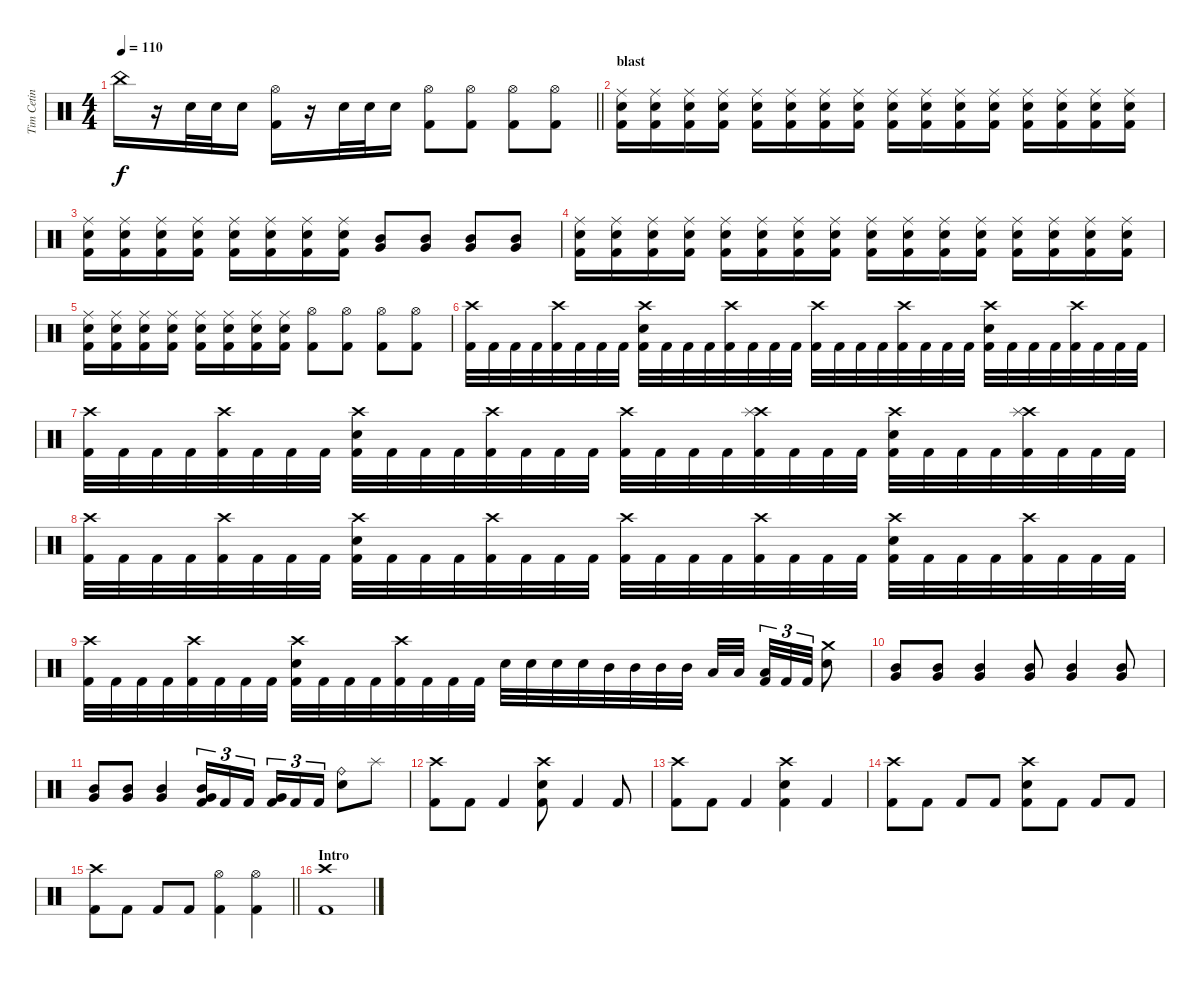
\track ("Tim Cetin" "Tim Cetin") {instrument percussion}
\staff {score}
\articulation defaults
\ts (4 4)
\tempo 110
\clef neutral
\barLineRight lightlight
\ks c "China (hit)".16{dy f}
r.16 "Snare (hit) 2".32 "Snare (hit) 2".32 "Snare (hit) 2".16 ("Hi-Hat (open)" "Kick (hit) 2").16 r.16 "Snare (hit) 2".32 "Snare (hit) 2".32 "Snare (hit) 2".16 ("Hi-Hat (open)" "Kick (hit) 2").8 ("Hi-Hat (open)" "Kick (hit) 2").8 ("Hi-Hat (open)" "Kick (hit) 2").8 ("Hi-Hat (open)" "Kick (hit) 2").8 |
\section ("" "blast")
("Ride (middle)" "Snare (hit) 2" "Kick (hit) 2").16 ("Ride (middle)" "Snare (hit) 2" "Kick (hit) 2").16 ("Ride (middle)" "Snare (hit) 2" "Kick (hit) 2").16 ("Ride (middle)" "Snare (hit) 2" "Kick (hit) 2").16 ("Ride (middle)" "Snare (hit) 2" "Kick (hit) 2").16 ("Ride (middle)" "Snare (hit) 2" "Kick (hit) 2").16 ("Ride (middle)" "Snare (hit) 2" "Kick (hit) 2").16 ("Ride (middle)" "Snare (hit) 2" "Kick (hit) 2").16 ("Ride (middle)" "Snare (hit) 2" "Kick (hit) 2").16 ("Ride (middle)" "Snare (hit) 2" "Kick (hit) 2").16 ("Ride (middle)" "Snare (hit) 2" "Kick (hit) 2").16 ("Ride (middle)" "Snare (hit) 2" "Kick (hit) 2").16 ("Ride (middle)" "Snare (hit) 2" "Kick (hit) 2").16 ("Ride (middle)" "Snare (hit) 2" "Kick (hit) 2").16 ("Ride (middle)" "Snare (hit) 2" "Kick (hit) 2").16 ("Ride (middle)" "Snare (hit) 2" "Kick (hit) 2").16 |
("Ride (middle)" "Snare (hit) 2" "Kick (hit) 2").16 ("Ride (middle)" "Snare (hit) 2" "Kick (hit) 2").16 ("Ride (middle)" "Snare (hit) 2" "Kick (hit) 2").16 ("Ride (middle)" "Snare (hit) 2" "Kick (hit) 2").16 ("Ride (middle)" "Snare (hit) 2" "Kick (hit) 2").16 ("Ride (middle)" "Snare (hit) 2" "Kick (hit) 2").16 ("Ride (middle)" "Snare (hit) 2" "Kick (hit) 2").16 ("Ride (middle)" "Snare (hit) 2" "Kick (hit) 2").16 ("Mid Tom (hit)" "Very Low Tom (hit)").8 ("Mid Tom (hit)" "Very Low Tom (hit)").8 ("Mid Tom (hit)" "Very Low Tom (hit)").8 ("Mid Tom (hit)" "Very Low Tom (hit)").8 |
("Ride (middle)" "Snare (hit) 2" "Kick (hit) 2").16 ("Ride (middle)" "Snare (hit) 2" "Kick (hit) 2").16 ("Ride (middle)" "Snare (hit) 2" "Kick (hit) 2").16 ("Ride (middle)" "Snare (hit) 2" "Kick (hit) 2").16 ("Ride (middle)" "Snare (hit) 2" "Kick (hit) 2").16 ("Ride (middle)" "Snare (hit) 2" "Kick (hit) 2").16 ("Ride (middle)" "Snare (hit) 2" "Kick (hit) 2").16 ("Ride (middle)" "Snare (hit) 2" "Kick (hit) 2").16 ("Ride (middle)" "Snare (hit) 2" "Kick (hit) 2").16 ("Ride (middle)" "Snare (hit) 2" "Kick (hit) 2").16 ("Ride (middle)" "Snare (hit) 2" "Kick (hit) 2").16 ("Ride (middle)" "Snare (hit) 2" "Kick (hit) 2").16 ("Ride (middle)" "Snare (hit) 2" "Kick (hit) 2").16 ("Ride (middle)" "Snare (hit) 2" "Kick (hit) 2").16 ("Ride (middle)" "Snare (hit) 2" "Kick (hit) 2").16 ("Ride (middle)" "Snare (hit) 2" "Kick (hit) 2").16 |
("Ride (middle)" "Snare (hit) 2" "Kick (hit) 2").16 ("Ride (middle)" "Snare (hit) 2" "Kick (hit) 2").16 ("Ride (middle)" "Snare (hit) 2" "Kick (hit) 2").16 ("Ride (middle)" "Snare (hit) 2" "Kick (hit) 2").16 ("Ride (middle)" "Snare (hit) 2" "Kick (hit) 2").16 ("Ride (middle)" "Snare (hit) 2" "Kick (hit) 2").16 ("Ride (middle)" "Snare (hit) 2" "Kick (hit) 2").16 ("Ride (middle)" "Snare (hit) 2" "Kick (hit) 2").16 ("Hi-Hat (open)" "Kick (hit) 2").8 ("Hi-Hat (open)" "Kick (hit) 2").8 ("Hi-Hat (open)" "Kick (hit) 2").8 ("Hi-Hat (open)" "Kick (hit) 2").8 |
("Crash high (hit)" "Kick (hit) 2").32 "Kick (hit) 2".32 "Kick (hit) 2".32 "Kick (hit) 2".32 ("Crash high (hit)" "Kick (hit) 2").32 "Kick (hit) 2".32 "Kick (hit) 2".32 "Kick (hit) 2".32 ("Crash high (hit)" "Snare (hit) 2" "Kick (hit) 2").32 "Kick (hit) 2".32 "Kick (hit) 2".32 "Kick (hit) 2".32 ("Crash high (hit)" "Kick (hit) 2").32 "Kick (hit) 2".32 "Kick (hit) 2".32 "Kick (hit) 2".32 ("Crash high (hit)" "Kick (hit) 2").32 "Kick (hit) 2".32 "Kick (hit) 2".32 "Kick (hit) 2".32 ("Crash high (hit)" "Kick (hit) 2").32 "Kick (hit) 2".32 "Kick (hit) 2".32 "Kick (hit) 2".32 ("Crash high (hit)" "Snare (hit) 2" "Kick (hit) 2").32 "Kick (hit) 2".32 "Kick (hit) 2".32 "Kick (hit) 2".32 ("Crash high (hit)" "Kick (hit) 2").32 "Kick (hit) 2".32 "Kick (hit) 2".32 "Kick (hit) 2".32 |
("Crash high (hit)" "Kick (hit) 2").32 "Kick (hit) 2".32 "Kick (hit) 2".32 "Kick (hit) 2".32 ("Crash high (hit)" "Kick (hit) 2").32 "Kick (hit) 2".32 "Kick (hit) 2".32 "Kick (hit) 2".32 ("Crash high (hit)" "Snare (hit) 2" "Kick (hit) 2").32 "Kick (hit) 2".32 "Kick (hit) 2".32 "Kick (hit) 2".32 ("Crash high (hit)" "Kick (hit) 2").32 "Kick (hit) 2".32 "Kick (hit) 2".32 "Kick (hit) 2".32 ("Crash high (hit)" "Kick (hit) 2").32 "Kick (hit) 2".32 "Kick (hit) 2".32 "Kick (hit) 2".32 ("Crash high (hit)" "Splash (hit)" "Kick (hit) 2").32 "Kick (hit) 2".32 "Kick (hit) 2".32 "Kick (hit) 2".32 ("Crash high (hit)" "Snare (hit) 2" "Kick (hit) 2").32 "Kick (hit) 2".32 "Kick (hit) 2".32 "Kick (hit) 2".32 ("Crash high (hit)" "Splash (hit)" "Kick (hit) 2").32 "Kick (hit) 2".32 "Kick (hit) 2".32 "Kick (hit) 2".32 |
("Crash high (hit)" "Kick (hit) 2").32 "Kick (hit) 2".32 "Kick (hit) 2".32 "Kick (hit) 2".32 ("Crash high (hit)" "Kick (hit) 2").32 "Kick (hit) 2".32 "Kick (hit) 2".32 "Kick (hit) 2".32 ("Crash high (hit)" "Snare (hit) 2" "Kick (hit) 2").32 "Kick (hit) 2".32 "Kick (hit) 2".32 "Kick (hit) 2".32 ("Crash high (hit)" "Kick (hit) 2").32 "Kick (hit) 2".32 "Kick (hit) 2".32 "Kick (hit) 2".32 ("Crash high (hit)" "Kick (hit) 2").32 "Kick (hit) 2".32 "Kick (hit) 2".32 "Kick (hit) 2".32 ("Crash high (hit)" "Kick (hit) 2").32 "Kick (hit) 2".32 "Kick (hit) 2".32 "Kick (hit) 2".32 ("Crash high (hit)" "Snare (hit) 2" "Kick (hit) 2").32 "Kick (hit) 2".32 "Kick (hit) 2".32 "Kick (hit) 2".32 ("Crash high (hit)" "Kick (hit) 2").32 "Kick (hit) 2".32 "Kick (hit) 2".32 "Kick (hit) 2".32 |
("Crash high (hit)" "Kick (hit) 2").32 "Kick (hit) 2".32 "Kick (hit) 2".32 "Kick (hit) 2".32 ("Crash high (hit)" "Kick (hit) 2").32 "Kick (hit) 2".32 "Kick (hit) 2".32 "Kick (hit) 2".32 ("Crash high (hit)" "Snare (hit) 2" "Kick (hit) 2").32 "Kick (hit) 2".32 "Kick (hit) 2".32 "Kick (hit) 2".32 ("Crash high (hit)" "Kick (hit) 2").32 "Kick (hit) 2".32 "Kick (hit) 2".32 "Kick (hit) 2".32 "Snare (hit) 2".32 "Snare (hit) 2".32 "Snare (hit) 2".32 "Snare (hit) 2".32 "Mid Tom (hit)".32 "Mid Tom (hit)".32 "Mid Tom (hit)".32 "Mid Tom (hit)".32 "Low Tom (hit)".32 "Low Tom (hit)".32{beam splitsecondary} ("Low Tom (hit)" "Kick (hit) 2").32{tu (3 2)} "Kick (hit) 2".32{tu (3 2)} "Kick (hit) 2".32{tu (3 2)} ("Crash medium (hit)" "Snare (hit) 2").8 |
("Mid Tom (hit)" "Very Low Tom (hit)").8 ("Mid Tom (hit)" "Very Low Tom (hit)").8 ("Mid Tom (hit)" "Very Low Tom (hit)").4 ("Mid Tom (hit)" "Very Low Tom (hit)").8 ("Mid Tom (hit)" "Very Low Tom (hit)").4 ("Mid Tom (hit)" "Very Low Tom (hit)").8 |
("Mid Tom (hit)" "Very Low Tom (hit)").8 ("Mid Tom (hit)" "Very Low Tom (hit)").8 ("Mid Tom (hit)" "Very Low Tom (hit)").4 ("Very Low Tom (hit)" "Mid Tom (hit)" "Kick (hit) 2").16{tu (3 2)} "Kick (hit) 2".16{tu (3 2)} "Kick (hit) 2".16{tu (3 2) beam splitsecondary} ("Very Low Tom (hit)" "Kick (hit) 2").16{tu (3 2)} "Kick (hit) 2".16{tu (3 2)} "Kick (hit) 2".16{tu (3 2)} ("Ride (bell)" "Snare (hit) 2").8 "Splash (hit)".8 |
("Crash high (hit)" "Kick (hit) 2").8 "Kick (hit) 2".8 "Kick (hit) 2".4 ("Crash high (hit)" "Snare (hit) 2" "Kick (hit) 2").8 "Kick (hit) 2".4 "Kick (hit) 2".8 |
("Crash high (hit)" "Kick (hit) 2").8 "Kick (hit) 2".8 "Kick (hit) 2".4 ("Crash high (hit)" "Snare (hit) 2" "Kick (hit) 2").4 "Kick (hit) 2".4 |
("Crash high (hit)" "Kick (hit) 2").8 "Kick (hit) 2".8 "Kick (hit) 2".8 "Kick (hit) 2".8 ("Crash high (hit)" "Snare (hit) 2" "Kick (hit) 2").8 "Kick (hit) 2".8 "Kick (hit) 2".8 "Kick (hit) 2".8 |
\barLineRight lightlight
("Crash high (hit)" "Kick (hit) 2").8 "Kick (hit) 2".8 "Kick (hit) 2".8 "Kick (hit) 2".8 ("Hi-Hat (open)" "Kick (hit) 2").4 ("Hi-Hat (open)" "Kick (hit) 2").4 |
\section ("" "Intro")
("Crash high (hit)" "Kick (hit) 2").1
